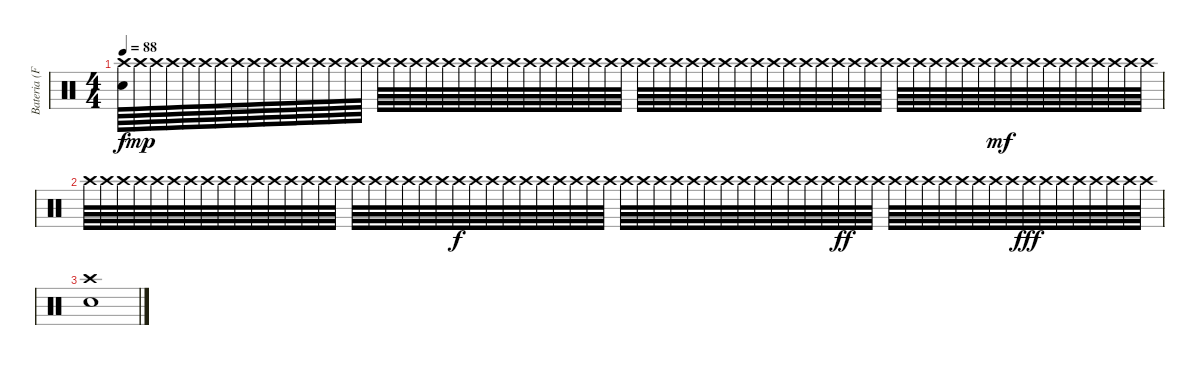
\track ("Bateria (Fernando Scarcella)" "Bateria (F") {instrument percussion}
\staff {score}
\articulation defaults
\ts (4 4)
\tempo 88
\clef neutral
\ks c
("Crash high (hit)" "Snare (hit) 2").64{dy f} "Crash high (hit)".64{dy mp} "Crash high (hit)".64 "Crash high (hit)".64 "Crash high (hit)".64 "Crash high (hit)".64 "Crash high (hit)".64 "Crash high (hit)".64 "Crash high (hit)".64 "Crash high (hit)".64 "Crash high (hit)".64 "Crash high (hit)".64 "Crash high (hit)".64 "Crash high (hit)".64 "Crash high (hit)".64 "Crash high (hit)".64 "Crash high (hit)".64 "Crash high (hit)".64 "Crash high (hit)".64 "Crash high (hit)".64 "Crash high (hit)".64 "Crash high (hit)".64 "Crash high (hit)".64 "Crash high (hit)".64 "Crash high (hit)".64 "Crash high (hit)".64 "Crash high (hit)".64 "Crash high (hit)".64 "Crash high (hit)".64 "Crash high (hit)".64 "Crash high (hit)".64 "Crash high (hit)".64 "Crash high (hit)".64 "Crash high (hit)".64 "Crash high (hit)".64 "Crash high (hit)".64 "Crash high (hit)".64 "Crash high (hit)".64 "Crash high (hit)".64 "Crash high (hit)".64 "Crash high (hit)".64 "Crash high (hit)".64 "Crash high (hit)".64 "Crash high (hit)".64 "Crash high (hit)".64 "Crash high (hit)".64 "Crash high (hit)".64 "Crash high (hit)".64 "Crash high (hit)".64 "Crash high (hit)".64 "Crash high (hit)".64 "Crash high (hit)".64 "Crash high (hit)".64 "Crash high (hit)".64 "Crash high (hit)".64{dy mf} "Crash high (hit)".64 "Crash high (hit)".64 "Crash high (hit)".64 "Crash high (hit)".64 "Crash high (hit)".64 "Crash high (hit)".64 "Crash high (hit)".64 "Crash high (hit)".64 "Crash high (hit)".64 |
"Crash high (hit)".64 "Crash high (hit)".64 "Crash high (hit)".64 "Crash high (hit)".64 "Crash high (hit)".64 "Crash high (hit)".64 "Crash high (hit)".64 "Crash high (hit)".64 "Crash high (hit)".64 "Crash high (hit)".64 "Crash high (hit)".64 "Crash high (hit)".64 "Crash high (hit)".64 "Crash high (hit)".64 "Crash high (hit)".64 "Crash high (hit)".64 "Crash high (hit)".64 "Crash high (hit)".64 "Crash high (hit)".64 "Crash high (hit)".64 "Crash high (hit)".64 "Crash high (hit)".64 "Crash high (hit)".64{dy f} "Crash high (hit)".64 "Crash high (hit)".64 "Crash high (hit)".64 "Crash high (hit)".64 "Crash high (hit)".64 "Crash high (hit)".64 "Crash high (hit)".64 "Crash high (hit)".64 "Crash high (hit)".64 "Crash high (hit)".64 "Crash high (hit)".64 "Crash high (hit)".64 "Crash high (hit)".64 "Crash high (hit)".64 "Crash high (hit)".64 "Crash high (hit)".64 "Crash high (hit)".64 "Crash high (hit)".64 "Crash high (hit)".64 "Crash high (hit)".64 "Crash high (hit)".64 "Crash high (hit)".64 "Crash high (hit)".64{dy ff} "Crash high (hit)".64 "Crash high (hit)".64 "Crash high (hit)".64 "Crash high (hit)".64 "Crash high (hit)".64 "Crash high (hit)".64 "Crash high (hit)".64 "Crash high (hit)".64 "Crash high (hit)".64 "Crash high (hit)".64 "Crash high (hit)".64{dy fff} "Crash high (hit)".64 "Crash high (hit)".64 "Crash high (hit)".64 "Crash high (hit)".64 "Crash high (hit)".64 "Crash high (hit)".64 "Crash high (hit)".64 |
("Crash high (hit)" "Snare (hit) 2").1
